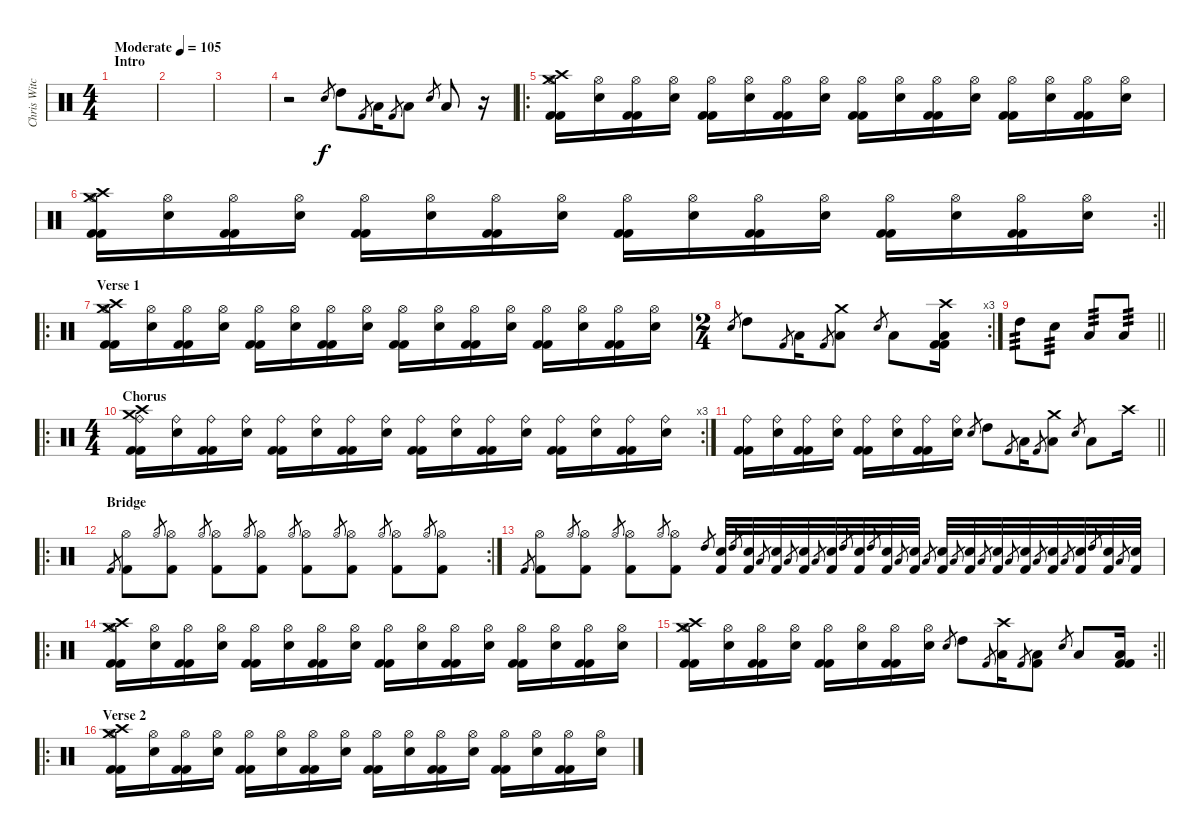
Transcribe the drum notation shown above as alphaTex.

\track ("Chris Witchhunter" "Chris Witc") {instrument percussion}
\staff {score}
\articulation defaults
\ts (4 4)
\section ("" "Intro")
\tempo (105 "Moderate")
\clef neutral
\ks c
|
|
|
r.2 "Electric Snare (hit)".8{gr} "High Tom (hit)".8 "Kick (hit) 2".8{gr} "Low Tom (hit)".16 "Kick (hit) 2".8{gr} "Low Tom (hit)".8 "Electric Snare (hit)".8{gr} "Low Floor Tom (hit)".8 r.16 |
\ro
("Crash medium (hit)" "Crash high (hit)" "Hi-Hat (open)" "Kick (hit) 2" "Kick (hit) 2").16 ("Hi-Hat (open)" "Electric Snare (hit)").16 ("Hi-Hat (open)" "Kick (hit) 2" "Kick (hit) 2").16 ("Hi-Hat (open)" "Electric Snare (hit)").16 ("Hi-Hat (open)" "Kick (hit) 2" "Kick (hit) 2").16 ("Hi-Hat (open)" "Electric Snare (hit)").16 ("Hi-Hat (open)" "Kick (hit) 2" "Kick (hit) 2").16 ("Hi-Hat (open)" "Electric Snare (hit)").16 ("Hi-Hat (open)" "Kick (hit) 2" "Kick (hit) 2").16 ("Hi-Hat (open)" "Electric Snare (hit)").16 ("Hi-Hat (open)" "Kick (hit) 2" "Kick (hit) 2").16 ("Hi-Hat (open)" "Electric Snare (hit)").16 ("Hi-Hat (open)" "Kick (hit) 2" "Kick (hit) 2").16 ("Hi-Hat (open)" "Electric Snare (hit)").16 ("Hi-Hat (open)" "Kick (hit) 2" "Kick (hit) 2").16 ("Hi-Hat (open)" "Electric Snare (hit)").16 |
\rc 2
\barLineRight lightlight
("Crash medium (hit)" "Crash high (hit)" "Hi-Hat (open)" "Kick (hit) 2" "Kick (hit) 2").16 ("Hi-Hat (open)" "Electric Snare (hit)").16 ("Hi-Hat (open)" "Kick (hit) 2" "Kick (hit) 2").16 ("Hi-Hat (open)" "Electric Snare (hit)").16 ("Hi-Hat (open)" "Kick (hit) 2" "Kick (hit) 2").16 ("Hi-Hat (open)" "Electric Snare (hit)").16 ("Hi-Hat (open)" "Kick (hit) 2" "Kick (hit) 2").16 ("Hi-Hat (open)" "Electric Snare (hit)").16 ("Hi-Hat (open)" "Kick (hit) 2" "Kick (hit) 2").16 ("Hi-Hat (open)" "Electric Snare (hit)").16 ("Hi-Hat (open)" "Kick (hit) 2" "Kick (hit) 2").16 ("Hi-Hat (open)" "Electric Snare (hit)").16 ("Hi-Hat (open)" "Kick (hit) 2" "Kick (hit) 2").16 ("Hi-Hat (open)" "Electric Snare (hit)").16 ("Hi-Hat (open)" "Kick (hit) 2" "Kick (hit) 2").16 ("Hi-Hat (open)" "Electric Snare (hit)").16 |
\ro
\section ("" "Verse 1")
("Crash medium (hit)" "Crash high (hit)" "Hi-Hat (open)" "Kick (hit) 2" "Kick (hit) 2").16 ("Hi-Hat (open)" "Electric Snare (hit)").16 ("Hi-Hat (open)" "Kick (hit) 2" "Kick (hit) 2").16 ("Hi-Hat (open)" "Electric Snare (hit)").16 ("Hi-Hat (open)" "Kick (hit) 2" "Kick (hit) 2").16 ("Hi-Hat (open)" "Electric Snare (hit)").16 ("Hi-Hat (open)" "Kick (hit) 2" "Kick (hit) 2").16 ("Hi-Hat (open)" "Electric Snare (hit)").16 ("Hi-Hat (open)" "Kick (hit) 2" "Kick (hit) 2").16 ("Hi-Hat (open)" "Electric Snare (hit)").16 ("Hi-Hat (open)" "Kick (hit) 2" "Kick (hit) 2").16 ("Hi-Hat (open)" "Electric Snare (hit)").16 ("Hi-Hat (open)" "Kick (hit) 2" "Kick (hit) 2").16 ("Hi-Hat (open)" "Electric Snare (hit)").16 ("Hi-Hat (open)" "Kick (hit) 2" "Kick (hit) 2").16 ("Hi-Hat (open)" "Electric Snare (hit)").16 |
\rc 3
\ts (2 4)
"Electric Snare (hit)".8{gr} "High Tom (hit)".8 "Kick (hit) 2".8{gr} "Low Tom (hit)".16 "Kick (hit) 2".8{gr} ("Crash medium (hit)" "Low Tom (hit)").8 "Electric Snare (hit)".8{gr} "Low Floor Tom (hit)".8 ("Crash high (hit)" "Low Tom (hit)" "Kick (hit) 2" "Kick (hit) 2").16 |
\barLineRight lightlight "High Tom (hit)".8{tp 3} "Electric Snare (hit)".8{tp 3} "Low Floor Tom (hit)".8{tp 3} "Low Tom (hit)".8{tp 3}
|
\ro
\rc 3
\ts (4 4)
\section ("" "Chorus")
("Crash medium (hit)" "Crash high (hit)" "Ride (bell)" "Kick (hit) 2" "Kick (hit) 2").16 ("Ride (bell)" "Electric Snare (hit)").16 ("Ride (bell)" "Kick (hit) 2" "Kick (hit) 2").16 ("Ride (bell)" "Electric Snare (hit)").16 ("Ride (bell)" "Kick (hit) 2" "Kick (hit) 2").16 ("Ride (bell)" "Electric Snare (hit)").16 ("Ride (bell)" "Kick (hit) 2" "Kick (hit) 2").16 ("Ride (bell)" "Electric Snare (hit)").16 ("Ride (bell)" "Kick (hit) 2" "Kick (hit) 2").16 ("Ride (bell)" "Electric Snare (hit)").16 ("Ride (bell)" "Kick (hit) 2" "Kick (hit) 2").16 ("Ride (bell)" "Electric Snare (hit)").16 ("Ride (bell)" "Kick (hit) 2" "Kick (hit) 2").16 ("Ride (bell)" "Electric Snare (hit)").16 ("Ride (bell)" "Kick (hit) 2" "Kick (hit) 2").16 ("Ride (bell)" "Electric Snare (hit)").16 |
\barLineRight lightlight
("Ride (bell)" "Kick (hit) 2" "Kick (hit) 2").16 ("Ride (bell)" "Electric Snare (hit)").16 ("Ride (bell)" "Kick (hit) 2" "Kick (hit) 2").16 ("Ride (bell)" "Electric Snare (hit)").16 ("Ride (bell)" "Kick (hit) 2" "Kick (hit) 2").16 ("Ride (bell)" "Electric Snare (hit)").16 ("Ride (bell)" "Kick (hit) 2" "Kick (hit) 2").16 ("Ride (bell)" "Electric Snare (hit)").16 "Electric Snare (hit)".8{gr} "High Tom (hit)".8 "Kick (hit) 2".8{gr} "Low Tom (hit)".16 "Kick (hit) 2".8{gr} ("Crash medium (hit)" "Low Tom (hit)").8 "Electric Snare (hit)".8{gr} "Low Floor Tom (hit)".8 "Crash high (hit)".16 |
\ro
\rc 2
\section ("" "Bridge")
"Kick (hit) 2".8{gr} ("Hi-Hat (open)" "Kick (hit) 2").8 "Hi-Hat (open)".8{gr} ("Hi-Hat (open)" "Kick (hit) 2").8 "Hi-Hat (open)".8{gr} ("Hi-Hat (open)" "Kick (hit) 2").8 "Hi-Hat (open)".8{gr} ("Hi-Hat (open)" "Kick (hit) 2").8 "Hi-Hat (open)".8{gr} ("Hi-Hat (open)" "Kick (hit) 2").8 "Hi-Hat (open)".8{gr} ("Hi-Hat (open)" "Kick (hit) 2").8 "Hi-Hat (open)".8{gr} ("Hi-Hat (open)" "Kick (hit) 2").8 "Hi-Hat (open)".8{gr} ("Hi-Hat (open)" "Kick (hit) 2").8 |
"Kick (hit) 2".8{gr} ("Hi-Hat (open)" "Kick (hit) 2").8 "Hi-Hat (open)".8{gr} ("Hi-Hat (open)" "Kick (hit) 2").8 "Hi-Hat (open)".8{gr} ("Hi-Hat (open)" "Kick (hit) 2").8 "Hi-Hat (open)".8{gr} ("Hi-Hat (open)" "Kick (hit) 2").8 "High Tom (hit)".8{gr} ("Electric Snare (hit)" "Kick (hit) 2").32 "High Tom (hit)".8{gr} ("Electric Snare (hit)" "Kick (hit) 2").32 "Low Tom (hit)".8{gr} ("Electric Snare (hit)" "Kick (hit) 2").32 "Low Tom (hit)".8{gr} ("Electric Snare (hit)" "Kick (hit) 2").32 "Low Tom (hit)".8{gr} ("Electric Snare (hit)" "Kick (hit) 2").32 "High Tom (hit)".8{gr} ("Electric Snare (hit)" "Kick (hit) 2").32 "High Tom (hit)".8{gr} ("Electric Snare (hit)" "Kick (hit) 2").32 "Low Tom (hit)".8{gr} ("Electric Snare (hit)" "Kick (hit) 2").32 "Low Tom (hit)".8{gr} ("Electric Snare (hit)" "Kick (hit) 2").32 "Low Floor Tom (hit)".8{gr} ("Electric Snare (hit)" "Kick (hit) 2").32 "Low Floor Tom (hit)".8{gr} ("Electric Snare (hit)" "Kick (hit) 2").32 "Low Floor Tom (hit)".8{gr} ("Electric Snare (hit)" "Kick (hit) 2").32 "Low Floor Tom (hit)".8{gr} ("Electric Snare (hit)" "Kick (hit) 2").32 "Low Floor Tom (hit)".8{gr} ("Electric Snare (hit)" "Kick (hit) 2").32 "High Tom (hit)".8{gr} ("Electric Snare (hit)" "Kick (hit) 2").32 "Low Floor Tom (hit)".8{gr} ("Electric Snare (hit)" "Kick (hit) 2").32 |
\ro
("Crash medium (hit)" "Crash high (hit)" "Hi-Hat (open)" "Kick (hit) 2" "Kick (hit) 2").16 ("Hi-Hat (open)" "Electric Snare (hit)").16 ("Hi-Hat (open)" "Kick (hit) 2" "Kick (hit) 2").16 ("Hi-Hat (open)" "Electric Snare (hit)").16 ("Hi-Hat (open)" "Kick (hit) 2" "Kick (hit) 2").16 ("Hi-Hat (open)" "Electric Snare (hit)").16 ("Hi-Hat (open)" "Kick (hit) 2" "Kick (hit) 2").16 ("Hi-Hat (open)" "Electric Snare (hit)").16 ("Hi-Hat (open)" "Kick (hit) 2" "Kick (hit) 2").16 ("Hi-Hat (open)" "Electric Snare (hit)").16 ("Hi-Hat (open)" "Kick (hit) 2" "Kick (hit) 2").16 ("Hi-Hat (open)" "Electric Snare (hit)").16 ("Hi-Hat (open)" "Kick (hit) 2" "Kick (hit) 2").16 ("Hi-Hat (open)" "Electric Snare (hit)").16 ("Hi-Hat (open)" "Kick (hit) 2" "Kick (hit) 2").16 ("Hi-Hat (open)" "Electric Snare (hit)").16 |
\rc 2
\barLineRight lightlight
("Crash medium (hit)" "Crash high (hit)" "Hi-Hat (open)" "Kick (hit) 2" "Kick (hit) 2").16 ("Hi-Hat (open)" "Electric Snare (hit)").16 ("Hi-Hat (open)" "Kick (hit) 2" "Kick (hit) 2").16 ("Hi-Hat (open)" "Electric Snare (hit)").16 ("Hi-Hat (open)" "Kick (hit) 2" "Kick (hit) 2").16 ("Hi-Hat (open)" "Electric Snare (hit)").16 ("Hi-Hat (open)" "Kick (hit) 2" "Kick (hit) 2").16 ("Hi-Hat (open)" "Electric Snare (hit)").16 "Electric Snare (hit)".8{gr} "High Tom (hit)".8 "Kick (hit) 2".8{gr} ("Crash high (hit)" "Low Tom (hit)").16 "Kick (hit) 2".8{gr} ("Low Tom (hit)" "Kick (hit) 2").8 "Electric Snare (hit)".8{gr} "Low Floor Tom (hit)".8 ("Low Tom (hit)" "Kick (hit) 2" "Kick (hit) 2").16 |
\ro
\section ("" "Verse 2")
("Crash medium (hit)" "Crash high (hit)" "Hi-Hat (open)" "Kick (hit) 2" "Kick (hit) 2").16 ("Hi-Hat (open)" "Electric Snare (hit)").16 ("Hi-Hat (open)" "Kick (hit) 2" "Kick (hit) 2").16 ("Hi-Hat (open)" "Electric Snare (hit)").16 ("Hi-Hat (open)" "Kick (hit) 2" "Kick (hit) 2").16 ("Hi-Hat (open)" "Electric Snare (hit)").16 ("Hi-Hat (open)" "Kick (hit) 2" "Kick (hit) 2").16 ("Hi-Hat (open)" "Electric Snare (hit)").16 ("Hi-Hat (open)" "Kick (hit) 2" "Kick (hit) 2").16 ("Hi-Hat (open)" "Electric Snare (hit)").16 ("Hi-Hat (open)" "Kick (hit) 2" "Kick (hit) 2").16 ("Hi-Hat (open)" "Electric Snare (hit)").16 ("Hi-Hat (open)" "Kick (hit) 2" "Kick (hit) 2").16 ("Hi-Hat (open)" "Electric Snare (hit)").16 ("Hi-Hat (open)" "Kick (hit) 2" "Kick (hit) 2").16 ("Hi-Hat (open)" "Electric Snare (hit)").16
